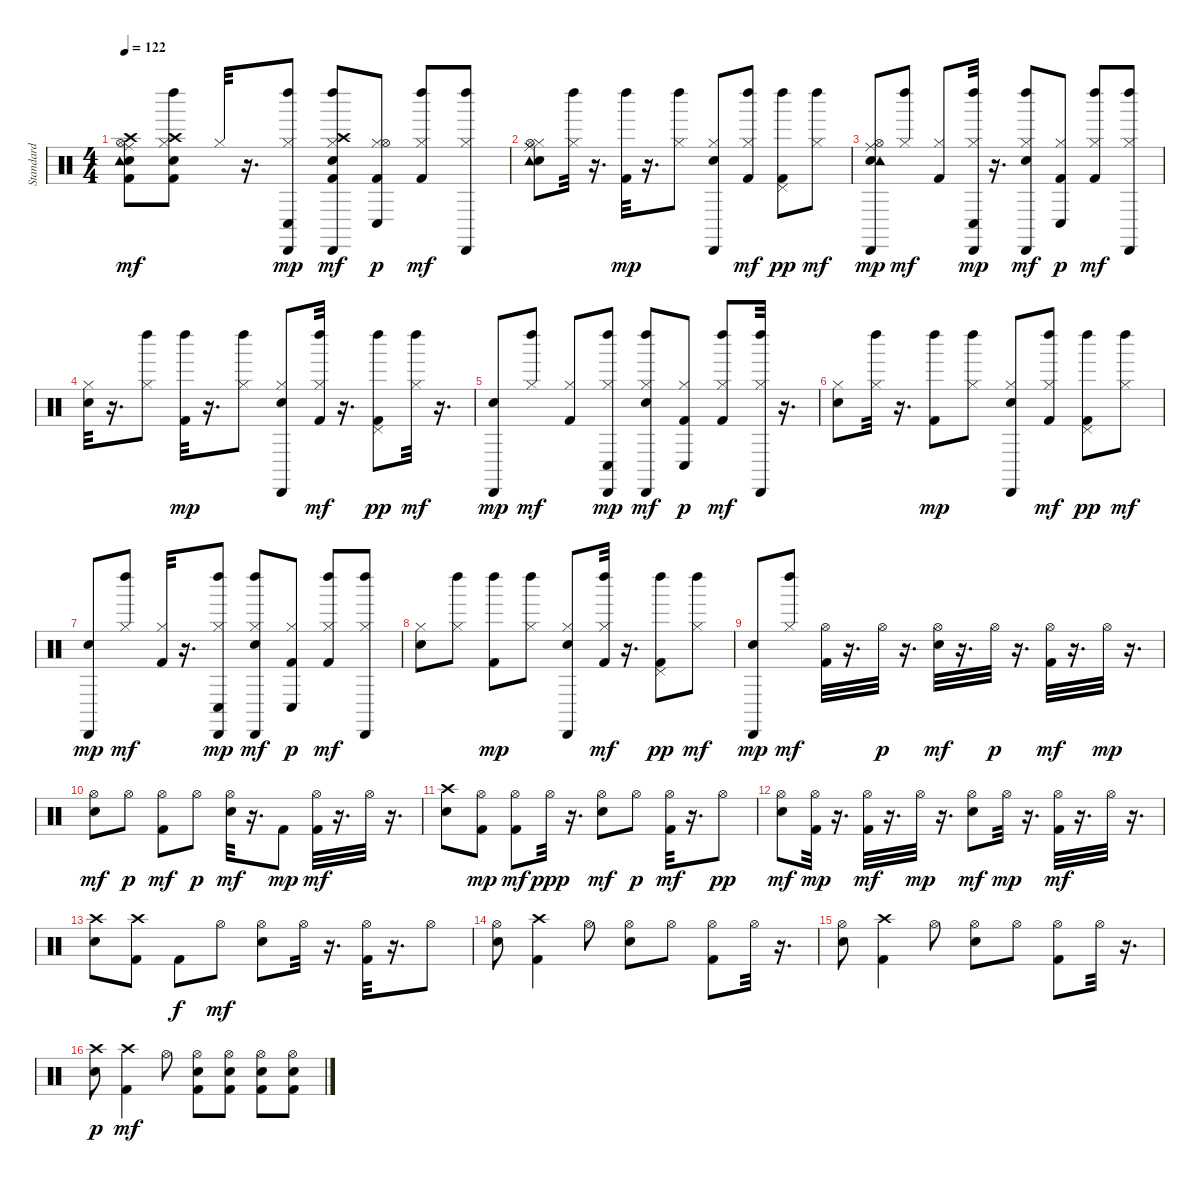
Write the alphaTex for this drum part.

\track (" Standard" " Standard") {instrument percussion}
\staff {score}
\articulation defaults
\ts (4 4)
\tempo 122
\clef neutral
\ks c
("Kick (hit) 2" "Snare (hit) 2" "Hi-Hat (open)" "Crash high (hit)" "Ride (middle)" "Tambourine (hit)").8{dy mf} ("Kick (hit) 2" "Snare (hit) 2" "Hi-Hat (closed)" "Crash high (hit)" "Left Maraca (hit)").8 "Hi-Hat (closed)".32 r.16{d} ("Hi-Hat (closed)" "Conga low (hit)" "Cabasa (hit)" "Left Maraca (hit)").8{dy mp} ("Kick (hit) 2" "Snare (hit) 2" "Hi-Hat (closed)" "Crash high (hit)" "Cabasa (hit)" "Left Maraca (hit)").8{dy mf} ("Kick (hit) 2" "Hi-Hat (closed)" "Hi-Hat (open)" "Conga low (hit)").8{dy p} ("Kick (hit) 2" "Hi-Hat (closed)" "Left Maraca (hit)").8{dy mf} ("Hi-Hat (closed)" "Cabasa (hit)" "Left Maraca (hit)").8 |
("Snare (hit) 2" "Hi-Hat (closed)" "Hi-Hat (open)" "Ride (middle)" "Tambourine (hit)").8 ("Hi-Hat (closed)" "Left Maraca (hit)").32 r.16{d} ("Kick (hit) 2" "Left Maraca (hit)").32{dy mp} r.16{d} ("Hi-Hat (closed)" "Left Maraca (hit)").8 ("Snare (hit) 2" "Hi-Hat (closed)" "Cabasa (hit)").8 ("Kick (hit) 2" "Hi-Hat (closed)" "Left Maraca (hit)").8{dy mf} ("Kick (hit) 2" "Pedal Hi-Hat (hit)" "Left Maraca (hit)").8{dy pp} ("Hi-Hat (closed)" "Left Maraca (hit)").8{dy mf} |
("Snare (hit) 2" "Hi-Hat (open)" "Ride (middle)" "Tambourine (hit)" "Cabasa (hit)").8{dy mp} ("Hi-Hat (closed)" "Left Maraca (hit)").8{dy mf} ("Kick (hit) 2" "Hi-Hat (closed)").8 ("Hi-Hat (closed)" "Conga low (hit)" "Cabasa (hit)" "Left Maraca (hit)").32{dy mp} r.16{d} ("Snare (hit) 2" "Hi-Hat (closed)" "Cabasa (hit)" "Left Maraca (hit)").8{dy mf} ("Kick (hit) 2" "Hi-Hat (closed)" "Conga low (hit)").8{dy p} ("Kick (hit) 2" "Hi-Hat (closed)" "Left Maraca (hit)").8{dy mf} ("Hi-Hat (closed)" "Cabasa (hit)" "Left Maraca (hit)").8 |
("Snare (hit) 2" "Hi-Hat (closed)").32 r.16{d} ("Hi-Hat (closed)" "Left Maraca (hit)").8 ("Kick (hit) 2" "Left Maraca (hit)").32{dy mp} r.16{d} ("Hi-Hat (closed)" "Left Maraca (hit)").8 ("Snare (hit) 2" "Hi-Hat (closed)" "Cabasa (hit)").8 ("Kick (hit) 2" "Hi-Hat (closed)" "Left Maraca (hit)").32{dy mf} r.16{d} ("Kick (hit) 2" "Pedal Hi-Hat (hit)" "Left Maraca (hit)").8{dy pp} ("Hi-Hat (closed)" "Left Maraca (hit)").32{dy mf} r.16{d} |
("Snare (hit) 2" "Cabasa (hit)").8{dy mp} ("Hi-Hat (closed)" "Left Maraca (hit)").8{dy mf} ("Kick (hit) 2" "Hi-Hat (closed)").8 ("Hi-Hat (closed)" "Conga low (hit)" "Cabasa (hit)" "Left Maraca (hit)").8{dy mp} ("Snare (hit) 2" "Hi-Hat (closed)" "Cabasa (hit)" "Left Maraca (hit)").8{dy mf} ("Kick (hit) 2" "Hi-Hat (closed)" "Conga low (hit)").8{dy p} ("Kick (hit) 2" "Hi-Hat (closed)" "Left Maraca (hit)").8{dy mf} ("Hi-Hat (closed)" "Cabasa (hit)" "Left Maraca (hit)").32 r.16{d} |
("Snare (hit) 2" "Hi-Hat (closed)").8 ("Hi-Hat (closed)" "Left Maraca (hit)").32 r.16{d} ("Kick (hit) 2" "Left Maraca (hit)").8{dy mp} ("Hi-Hat (closed)" "Left Maraca (hit)").8 ("Snare (hit) 2" "Hi-Hat (closed)" "Cabasa (hit)").8 ("Kick (hit) 2" "Hi-Hat (closed)" "Left Maraca (hit)").8{dy mf} ("Kick (hit) 2" "Pedal Hi-Hat (hit)" "Left Maraca (hit)").8{dy pp} ("Hi-Hat (closed)" "Left Maraca (hit)").8{dy mf} |
("Snare (hit) 2" "Cabasa (hit)").8{dy mp} ("Hi-Hat (closed)" "Left Maraca (hit)").8{dy mf} ("Kick (hit) 2" "Hi-Hat (closed)").32 r.16{d} ("Hi-Hat (closed)" "Conga low (hit)" "Cabasa (hit)" "Left Maraca (hit)").8{dy mp} ("Snare (hit) 2" "Hi-Hat (closed)" "Cabasa (hit)" "Left Maraca (hit)").8{dy mf} ("Kick (hit) 2" "Hi-Hat (closed)" "Conga low (hit)").8{dy p} ("Kick (hit) 2" "Hi-Hat (closed)" "Left Maraca (hit)").8{dy mf} ("Hi-Hat (closed)" "Cabasa (hit)" "Left Maraca (hit)").8 |
("Snare (hit) 2" "Hi-Hat (closed)").8 ("Hi-Hat (closed)" "Left Maraca (hit)").8 ("Kick (hit) 2" "Left Maraca (hit)").8{dy mp} ("Hi-Hat (closed)" "Left Maraca (hit)").8 ("Snare (hit) 2" "Hi-Hat (closed)" "Cabasa (hit)").8 ("Kick (hit) 2" "Hi-Hat (closed)" "Left Maraca (hit)").32{dy mf} r.16{d} ("Kick (hit) 2" "Pedal Hi-Hat (hit)" "Left Maraca (hit)").8{dy pp} ("Hi-Hat (closed)" "Left Maraca (hit)").8{dy mf} |
("Snare (hit) 2" "Cabasa (hit)").8{dy mp} ("Hi-Hat (closed)" "Left Maraca (hit)").8{dy mf} ("Kick (hit) 2" "Hi-Hat (open)").32 r.16{d} "Hi-Hat (open)".32{dy p} r.16{d} ("Snare (hit) 2" "Hi-Hat (open)").32{dy mf} r.16{d} "Hi-Hat (open)".32{dy p} r.16{d} ("Kick (hit) 2" "Hi-Hat (open)").32{dy mf} r.16{d} "Hi-Hat (open)".32{dy mp} r.16{d} |
("Snare (hit) 2" "Hi-Hat (open)").8{dy mf} "Hi-Hat (open)".8{dy p} ("Kick (hit) 2" "Hi-Hat (open)").8{dy mf} "Hi-Hat (open)".8{dy p} ("Snare (hit) 2" "Hi-Hat (open)").32{dy mf} r.16{d} "Kick (hit) 2".8{dy mp} ("Kick (hit) 2" "Hi-Hat (open)").32{dy mf} r.16{d} "Hi-Hat (open)".32 r.16{d} |
("Snare (hit) 2" "Crash high (hit)").8 ("Kick (hit) 2" "Hi-Hat (open)").8{dy mp} ("Kick (hit) 2" "Hi-Hat (open)").8{dy mf} "Hi-Hat (open)".32{dy ppp} r.16{d} ("Snare (hit) 2" "Hi-Hat (open)").8{dy mf} "Hi-Hat (open)".8{dy p} ("Kick (hit) 2" "Hi-Hat (open)").32{dy mf} r.16{d} "Hi-Hat (open)".8{dy pp} |
("Snare (hit) 2" "Hi-Hat (open)").8{dy mf} ("Kick (hit) 2" "Hi-Hat (open)").32{dy mp} r.16{d} ("Kick (hit) 2" "Hi-Hat (open)").32{dy mf} r.16{d} "Hi-Hat (open)".32{dy mp} r.16{d} ("Snare (hit) 2" "Hi-Hat (open)").8{dy mf} "Hi-Hat (open)".32{dy mp} r.16{d} ("Kick (hit) 2" "Hi-Hat (open)").32{dy mf} r.16{d} "Hi-Hat (open)".32 r.16{d} |
("Snare (hit) 2" "Crash high (hit)").8 ("Kick (hit) 2" "Crash high (hit)").8 "Kick (hit) 2".8{dy f} "Hi-Hat (open)".8{dy mf} ("Snare (hit) 2" "Hi-Hat (open)").8 "Hi-Hat (open)".32 r.16{d} ("Kick (hit) 2" "Hi-Hat (open)").32 r.16{d} "Hi-Hat (open)".8 |
("Snare (hit) 2" "Hi-Hat (open)").8 ("Kick (hit) 2" "Crash high (hit)").4 "Hi-Hat (open)".8 ("Snare (hit) 2" "Hi-Hat (open)").8 "Hi-Hat (open)".8 ("Kick (hit) 2" "Hi-Hat (open)").8 "Hi-Hat (open)".32 r.16{d} |
("Snare (hit) 2" "Hi-Hat (open)").8 ("Kick (hit) 2" "Crash high (hit)").4 "Hi-Hat (open)".8 ("Snare (hit) 2" "Hi-Hat (open)").8 "Hi-Hat (open)".8 ("Kick (hit) 2" "Hi-Hat (open)").8 "Hi-Hat (open)".32 r.16{d} |
("Snare (hit) 2" "Crash high (hit)").8{dy p} ("Kick (hit) 2" "Crash high (hit)").4{dy mf} "Hi-Hat (open)".8 ("Kick (hit) 2" "Snare (hit) 2" "Hi-Hat (open)").8 ("Kick (hit) 2" "Snare (hit) 2" "Hi-Hat (open)").8 ("Kick (hit) 2" "Snare (hit) 2" "Hi-Hat (open)").8 ("Kick (hit) 2" "Snare (hit) 2" "Hi-Hat (open)").8
